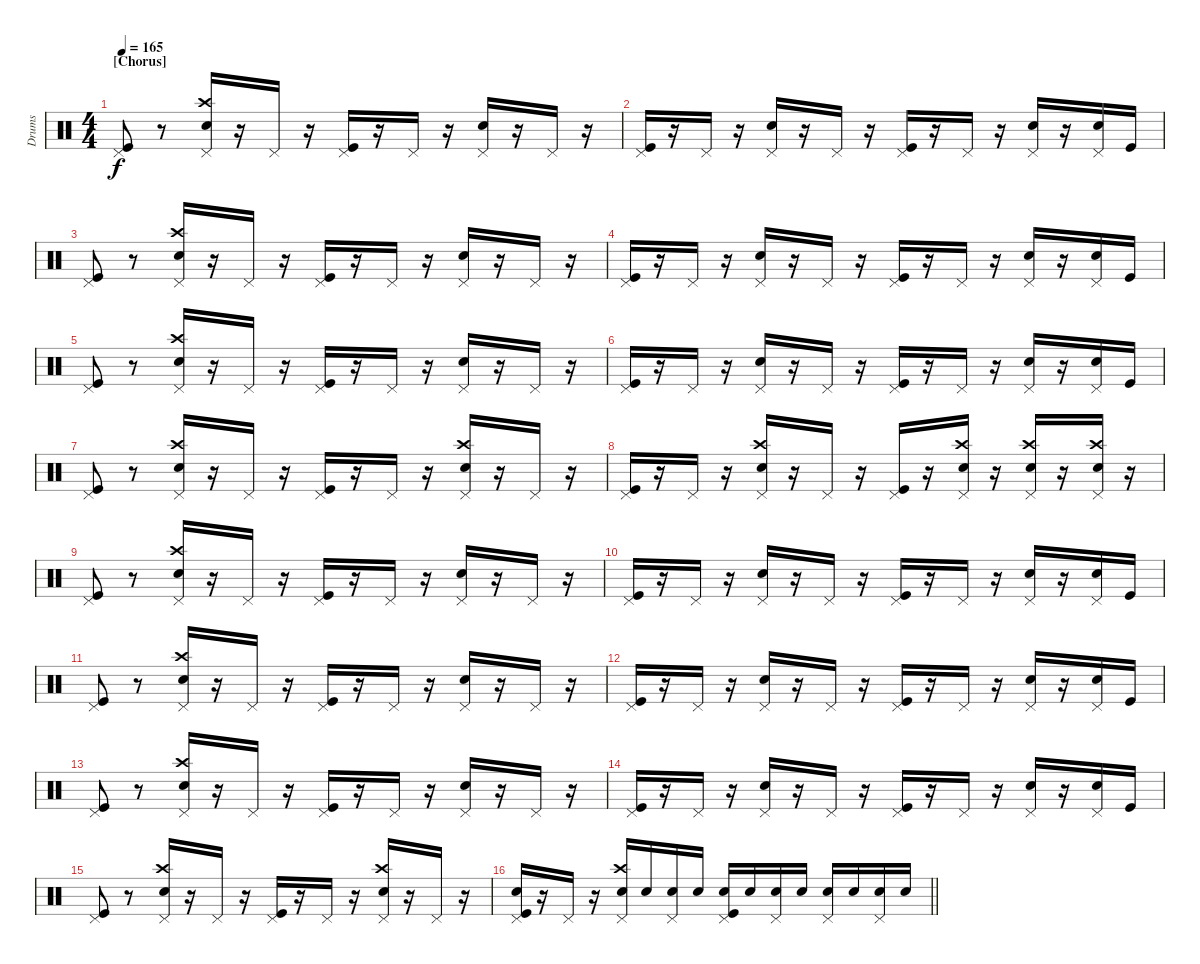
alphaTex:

\track ("Drums" "Drums") {instrument percussion}
\staff {score}
\articulation defaults
\ts (4 4)
\section ("" "[Chorus]")
\tempo 165
\clef neutral
\ks c
("Pedal Hi-Hat (hit)" "Kick (hit)").8{dy f} r.8 ("Pedal Hi-Hat (hit)" "Crash high (hit)" "Snare (hit) 2").16 r.16 "Pedal Hi-Hat (hit)".16 r.16 ("Pedal Hi-Hat (hit)" "Kick (hit)").16 r.16 "Pedal Hi-Hat (hit)".16 r.16 ("Pedal Hi-Hat (hit)" "Snare (hit) 2").16 r.16 "Pedal Hi-Hat (hit)".16 r.16 |
("Pedal Hi-Hat (hit)" "Kick (hit)").16 r.16 "Pedal Hi-Hat (hit)".16 r.16 ("Pedal Hi-Hat (hit)" "Snare (hit) 2").16 r.16 "Pedal Hi-Hat (hit)".16 r.16 ("Pedal Hi-Hat (hit)" "Kick (hit)").16 r.16 "Pedal Hi-Hat (hit)".16 r.16 ("Pedal Hi-Hat (hit)" "Snare (hit) 2").16 r.16 ("Pedal Hi-Hat (hit)" "Snare (hit) 2").16 "Kick (hit)".16 |
("Pedal Hi-Hat (hit)" "Kick (hit)").8 r.8 ("Pedal Hi-Hat (hit)" "Crash high (hit)" "Snare (hit) 2").16 r.16 "Pedal Hi-Hat (hit)".16 r.16 ("Pedal Hi-Hat (hit)" "Kick (hit)").16 r.16 "Pedal Hi-Hat (hit)".16 r.16 ("Pedal Hi-Hat (hit)" "Snare (hit) 2").16 r.16 "Pedal Hi-Hat (hit)".16 r.16 |
("Pedal Hi-Hat (hit)" "Kick (hit)").16 r.16 "Pedal Hi-Hat (hit)".16 r.16 ("Pedal Hi-Hat (hit)" "Snare (hit) 2").16 r.16 "Pedal Hi-Hat (hit)".16 r.16 ("Pedal Hi-Hat (hit)" "Kick (hit)").16 r.16 "Pedal Hi-Hat (hit)".16 r.16 ("Pedal Hi-Hat (hit)" "Snare (hit) 2").16 r.16 ("Pedal Hi-Hat (hit)" "Snare (hit) 2").16 "Kick (hit)".16 |
("Pedal Hi-Hat (hit)" "Kick (hit)").8 r.8 ("Pedal Hi-Hat (hit)" "Crash high (hit)" "Snare (hit) 2").16 r.16 "Pedal Hi-Hat (hit)".16 r.16 ("Pedal Hi-Hat (hit)" "Kick (hit)").16 r.16 "Pedal Hi-Hat (hit)".16 r.16 ("Pedal Hi-Hat (hit)" "Snare (hit) 2").16 r.16 "Pedal Hi-Hat (hit)".16 r.16 |
("Pedal Hi-Hat (hit)" "Kick (hit)").16 r.16 "Pedal Hi-Hat (hit)".16 r.16 ("Pedal Hi-Hat (hit)" "Snare (hit) 2").16 r.16 "Pedal Hi-Hat (hit)".16 r.16 ("Pedal Hi-Hat (hit)" "Kick (hit)").16 r.16 "Pedal Hi-Hat (hit)".16 r.16 ("Pedal Hi-Hat (hit)" "Snare (hit) 2").16 r.16 ("Pedal Hi-Hat (hit)" "Snare (hit) 2").16 "Kick (hit)".16 |
("Pedal Hi-Hat (hit)" "Kick (hit)").8 r.8 ("Pedal Hi-Hat (hit)" "Crash high (hit)" "Snare (hit) 2").16 r.16 "Pedal Hi-Hat (hit)".16 r.16 ("Pedal Hi-Hat (hit)" "Kick (hit)").16 r.16 "Pedal Hi-Hat (hit)".16 r.16 ("Pedal Hi-Hat (hit)" "Crash high (hit)" "Snare (hit) 2").16 r.16 "Pedal Hi-Hat (hit)".16 r.16 |
("Pedal Hi-Hat (hit)" "Kick (hit)").16 r.16 "Pedal Hi-Hat (hit)".16 r.16 ("Pedal Hi-Hat (hit)" "Crash high (hit)" "Snare (hit) 2").16 r.16 "Pedal Hi-Hat (hit)".16 r.16 ("Pedal Hi-Hat (hit)" "Kick (hit)").16 r.16 ("Pedal Hi-Hat (hit)" "Crash high (hit)" "Snare (hit) 2").16 r.16 ("Pedal Hi-Hat (hit)" "Crash high (hit)" "Snare (hit) 2").16 r.16 ("Pedal Hi-Hat (hit)" "Crash high (hit)" "Snare (hit) 2").16 r.16 |
("Pedal Hi-Hat (hit)" "Kick (hit)").8 r.8 ("Pedal Hi-Hat (hit)" "Crash high (hit)" "Snare (hit) 2").16 r.16 "Pedal Hi-Hat (hit)".16 r.16 ("Pedal Hi-Hat (hit)" "Kick (hit)").16 r.16 "Pedal Hi-Hat (hit)".16 r.16 ("Pedal Hi-Hat (hit)" "Snare (hit) 2").16 r.16 "Pedal Hi-Hat (hit)".16 r.16 |
("Pedal Hi-Hat (hit)" "Kick (hit)").16 r.16 "Pedal Hi-Hat (hit)".16 r.16 ("Pedal Hi-Hat (hit)" "Snare (hit) 2").16 r.16 "Pedal Hi-Hat (hit)".16 r.16 ("Pedal Hi-Hat (hit)" "Kick (hit)").16 r.16 "Pedal Hi-Hat (hit)".16 r.16 ("Pedal Hi-Hat (hit)" "Snare (hit) 2").16 r.16 ("Pedal Hi-Hat (hit)" "Snare (hit) 2").16 "Kick (hit)".16 |
("Pedal Hi-Hat (hit)" "Kick (hit)").8 r.8 ("Pedal Hi-Hat (hit)" "Crash high (hit)" "Snare (hit) 2").16 r.16 "Pedal Hi-Hat (hit)".16 r.16 ("Pedal Hi-Hat (hit)" "Kick (hit)").16 r.16 "Pedal Hi-Hat (hit)".16 r.16 ("Pedal Hi-Hat (hit)" "Snare (hit) 2").16 r.16 "Pedal Hi-Hat (hit)".16 r.16 |
("Pedal Hi-Hat (hit)" "Kick (hit)").16 r.16 "Pedal Hi-Hat (hit)".16 r.16 ("Pedal Hi-Hat (hit)" "Snare (hit) 2").16 r.16 "Pedal Hi-Hat (hit)".16 r.16 ("Pedal Hi-Hat (hit)" "Kick (hit)").16 r.16 "Pedal Hi-Hat (hit)".16 r.16 ("Pedal Hi-Hat (hit)" "Snare (hit) 2").16 r.16 ("Pedal Hi-Hat (hit)" "Snare (hit) 2").16 "Kick (hit)".16 |
("Pedal Hi-Hat (hit)" "Kick (hit)").8 r.8 ("Pedal Hi-Hat (hit)" "Crash high (hit)" "Snare (hit) 2").16 r.16 "Pedal Hi-Hat (hit)".16 r.16 ("Pedal Hi-Hat (hit)" "Kick (hit)").16 r.16 "Pedal Hi-Hat (hit)".16 r.16 ("Pedal Hi-Hat (hit)" "Snare (hit) 2").16 r.16 "Pedal Hi-Hat (hit)".16 r.16 |
("Pedal Hi-Hat (hit)" "Kick (hit)").16 r.16 "Pedal Hi-Hat (hit)".16 r.16 ("Pedal Hi-Hat (hit)" "Snare (hit) 2").16 r.16 "Pedal Hi-Hat (hit)".16 r.16 ("Pedal Hi-Hat (hit)" "Kick (hit)").16 r.16 "Pedal Hi-Hat (hit)".16 r.16 ("Pedal Hi-Hat (hit)" "Snare (hit) 2").16 r.16 ("Pedal Hi-Hat (hit)" "Snare (hit) 2").16 "Kick (hit)".16 |
("Pedal Hi-Hat (hit)" "Kick (hit)").8 r.8 ("Pedal Hi-Hat (hit)" "Crash high (hit)" "Snare (hit) 2").16 r.16 "Pedal Hi-Hat (hit)".16 r.16 ("Pedal Hi-Hat (hit)" "Kick (hit)").16 r.16 "Pedal Hi-Hat (hit)".16 r.16 ("Pedal Hi-Hat (hit)" "Crash high (hit)" "Snare (hit) 2").16 r.16 "Pedal Hi-Hat (hit)".16 r.16 |
\barLineRight lightlight
("Pedal Hi-Hat (hit)" "Snare (hit) 2" "Kick (hit)").16 r.16 "Pedal Hi-Hat (hit)".16 r.16 ("Pedal Hi-Hat (hit)" "Crash high (hit)" "Snare (hit) 2").16 "Snare (hit) 2".16 ("Pedal Hi-Hat (hit)" "Snare (hit) 2").16 "Snare (hit) 2".16 ("Pedal Hi-Hat (hit)" "Snare (hit) 2" "Kick (hit)").16 "Snare (hit) 2".16 ("Pedal Hi-Hat (hit)" "Snare (hit) 2").16 "Snare (hit) 2".16 ("Pedal Hi-Hat (hit)" "Snare (hit) 2").16 "Snare (hit) 2".16 ("Pedal Hi-Hat (hit)" "Snare (hit) 2").16 "Snare (hit) 2".16
